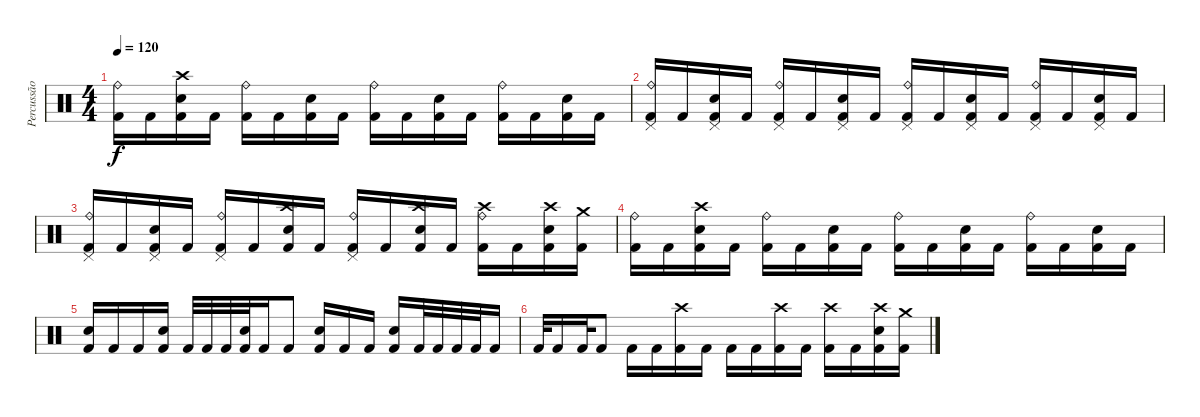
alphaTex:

\track ("Percussão" "Percussão") {instrument percussion}
\staff {score}
\articulation defaults
\ts (4 4)
\tempo 120
\clef neutral
\ks c
("Ride (bell)" "Kick (hit) 2").16{dy f} "Kick (hit) 2".16 ("Crash high (hit)" "Snare (hit) 2" "Kick (hit) 2").16 "Kick (hit) 2".16 ("Ride (bell)" "Kick (hit) 2").16 "Kick (hit) 2".16 ("Snare (hit) 2" "Kick (hit) 2").16 "Kick (hit) 2".16 ("Ride (bell)" "Kick (hit) 2").16 "Kick (hit) 2".16 ("Snare (hit) 2" "Kick (hit) 2").16 "Kick (hit) 2".16 ("Ride (bell)" "Kick (hit) 2").16 "Kick (hit) 2".16 ("Snare (hit) 2" "Kick (hit) 2").16 "Kick (hit) 2".16 |
("Pedal Hi-Hat (hit)" "Ride (bell)" "Kick (hit) 2").16 "Kick (hit) 2".16 ("Pedal Hi-Hat (hit)" "Snare (hit) 2" "Kick (hit) 2").16 "Kick (hit) 2".16 ("Pedal Hi-Hat (hit)" "Ride (bell)" "Kick (hit) 2").16 "Kick (hit) 2".16 ("Pedal Hi-Hat (hit)" "Snare (hit) 2" "Kick (hit) 2").16 "Kick (hit) 2".16 ("Pedal Hi-Hat (hit)" "Ride (bell)" "Kick (hit) 2").16 "Kick (hit) 2".16 ("Pedal Hi-Hat (hit)" "Snare (hit) 2" "Kick (hit) 2").16 "Kick (hit) 2".16 ("Pedal Hi-Hat (hit)" "Ride (bell)" "Kick (hit) 2").16 "Kick (hit) 2".16 ("Pedal Hi-Hat (hit)" "Snare (hit) 2" "Kick (hit) 2").16 "Kick (hit) 2".16 |
("Pedal Hi-Hat (hit)" "Ride (bell)" "Kick (hit) 2").16 "Kick (hit) 2".16 ("Pedal Hi-Hat (hit)" "Snare (hit) 2" "Kick (hit) 2").16 "Kick (hit) 2".16 ("Pedal Hi-Hat (hit)" "Ride (bell)" "Kick (hit) 2").16 "Kick (hit) 2".16 ("Crash high (hit)" "Snare (hit) 2" "Kick (hit) 2").16 "Kick (hit) 2".16 ("Pedal Hi-Hat (hit)" "Ride (bell)" "Kick (hit) 2").16 "Kick (hit) 2".16 ("Crash high (hit)" "Snare (hit) 2" "Kick (hit) 2").16 "Kick (hit) 2".16 ("Crash high (hit)" "Ride (bell)" "Kick (hit) 2").16 "Kick (hit) 2".16 ("Crash high (hit)" "Snare (hit) 2" "Kick (hit) 2").16 ("Crash medium (hit)" "Kick (hit) 2").16 |
("Ride (bell)" "Kick (hit) 2").16 "Kick (hit) 2".16 ("Crash high (hit)" "Snare (hit) 2" "Kick (hit) 2").16 "Kick (hit) 2".16 ("Ride (bell)" "Kick (hit) 2").16 "Kick (hit) 2".16 ("Snare (hit) 2" "Kick (hit) 2").16 "Kick (hit) 2".16 ("Ride (bell)" "Kick (hit) 2").16 "Kick (hit) 2".16 ("Snare (hit) 2" "Kick (hit) 2").16 "Kick (hit) 2".16 ("Ride (bell)" "Kick (hit) 2").16 "Kick (hit) 2".16 ("Snare (hit) 2" "Kick (hit) 2").16 "Kick (hit) 2".16 |
("Snare (hit) 2" "Kick (hit) 2").16 "Kick (hit) 2".16 "Kick (hit) 2".16 ("Snare (hit) 2" "Kick (hit) 2").16 "Kick (hit) 2".32 "Kick (hit) 2".32 "Kick (hit) 2".32 ("Snare (hit) 2" "Kick (hit) 2").32 "Kick (hit) 2".16 "Kick (hit) 2".8 ("Snare (hit) 2" "Kick (hit) 2").16 "Kick (hit) 2".16 "Kick (hit) 2".16 ("Snare (hit) 2" "Kick (hit) 2").16 "Kick (hit) 2".32 "Kick (hit) 2".32 "Kick (hit) 2".32 "Kick (hit) 2".32 "Kick (hit) 2".16 |
"Kick (hit) 2".32 "Kick (hit) 2".16 "Kick (hit) 2".32 "Kick (hit) 2".8 "Kick (hit) 2".16 "Kick (hit) 2".16 ("Crash high (hit)" "Kick (hit) 2").16 "Kick (hit) 2".16 "Kick (hit) 2".16 "Kick (hit) 2".16 ("Crash high (hit)" "Kick (hit) 2").16 "Kick (hit) 2".16 ("Crash high (hit)" "Kick (hit) 2").16 "Kick (hit) 2".16 ("Crash high (hit)" "Snare (hit) 2" "Kick (hit) 2").16 ("Crash medium (hit)" "Kick (hit) 2").16
